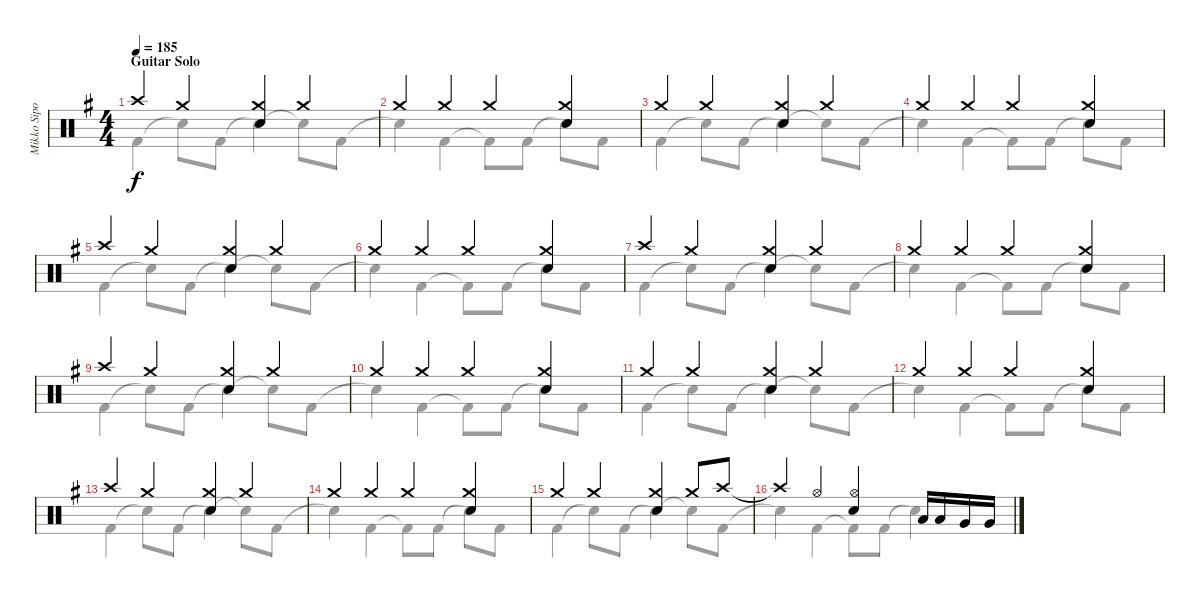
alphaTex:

\track ("Mikko Sipola (drums)" "Mikko Sipo") {instrument percussion}
\staff {score}
\articulation defaults
\voice
\ts (4 4)
\section ("" "Guitar Solo")
\tempo 185
\clef neutral
\ks eminor "Crash high (hit)".4{dy f} "Crash medium (hit)".4
("Crash medium (hit)" "Electric Snare (hit)").4 "Crash medium (hit)".4 |
"Crash medium (hit)".4 "Crash medium (hit)".4 "Crash medium (hit)".4 ("Crash medium (hit)" "Electric Snare (hit)").4 |
"Crash medium (hit)".4 "Crash medium (hit)".4 ("Crash medium (hit)" "Electric Snare (hit)").4 "Crash medium (hit)".4 |
"Crash medium (hit)".4 "Crash medium (hit)".4 "Crash medium (hit)".4 ("Crash medium (hit)" "Electric Snare (hit)").4 |
"Crash high (hit)".4 "Crash medium (hit)".4 ("Crash medium (hit)" "Electric Snare (hit)").4 "Crash medium (hit)".4 |
"Crash medium (hit)".4 "Crash medium (hit)".4 "Crash medium (hit)".4 ("Crash medium (hit)" "Electric Snare (hit)").4 |
"Crash high (hit)".4 "Crash medium (hit)".4 ("Crash medium (hit)" "Electric Snare (hit)").4 "Crash medium (hit)".4 |
"Crash medium (hit)".4 "Crash medium (hit)".4 "Crash medium (hit)".4 ("Crash medium (hit)" "Electric Snare (hit)").4 |
"Crash high (hit)".4 "Crash medium (hit)".4 ("Crash medium (hit)" "Electric Snare (hit)").4 "Crash medium (hit)".4 |
"Crash medium (hit)".4 "Crash medium (hit)".4 "Crash medium (hit)".4 ("Crash medium (hit)" "Electric Snare (hit)").4 |
"Crash medium (hit)".4 "Crash medium (hit)".4 ("Crash medium (hit)" "Electric Snare (hit)").4 "Crash medium (hit)".4 |
"Crash medium (hit)".4 "Crash medium (hit)".4 "Crash medium (hit)".4 ("Crash medium (hit)" "Electric Snare (hit)").4 |
"Crash high (hit)".4 "Crash medium (hit)".4 ("Crash medium (hit)" "Electric Snare (hit)").4 "Crash medium (hit)".4 |
"Crash medium (hit)".4 "Crash medium (hit)".4 "Crash medium (hit)".4 ("Crash medium (hit)" "Electric Snare (hit)").4 |
"Crash medium (hit)".4 "Crash medium (hit)".4 ("Crash medium (hit)" "Electric Snare (hit)").4 "Crash medium (hit)".8 "Crash high (hit)".8 |
"Crash high (hit)"{t}.4 "Hi-Hat (open)".4 ("Hi-Hat (open)" "Electric Snare (hit)").4 "Low Tom (hit)".16 "Low Tom (hit)".16 "Very Low Tom (hit)".16 "Very Low Tom (hit)".16
\voice
\clef neutral
\ottava regular
\simile none
\ks eminor "Kick (hit) 2".4{dy f} "Snare (hit)"{t}.8 "Kick (hit) 2".8 "Snare (hit)"{t}.4 "Snare (hit)"{t}.8 "Kick (hit) 2".8
|
"Snare (hit)"{t}.4 "Kick (hit) 2".4 "Kick (hit) 2"{t}.8 "Kick (hit) 2".8 "Snare (hit)"{t}.8 "Kick (hit) 2".8 |
"Kick (hit) 2".4 "Snare (hit)"{t}.8 "Kick (hit) 2".8 "Snare (hit)"{t}.4 "Snare (hit)"{t}.8 "Kick (hit) 2".8 |
"Snare (hit)"{t}.4 "Kick (hit) 2".4 "Kick (hit) 2"{t}.8 "Kick (hit) 2".8 "Snare (hit)"{t}.8 "Kick (hit) 2".8 |
"Kick (hit) 2".4 "Snare (hit)"{t}.8 "Kick (hit) 2".8 "Snare (hit)"{t}.4 "Snare (hit)"{t}.8 "Kick (hit) 2".8 |
"Snare (hit)"{t}.4 "Kick (hit) 2".4 "Kick (hit) 2"{t}.8 "Kick (hit) 2".8 "Snare (hit)"{t}.8 "Kick (hit) 2".8 |
"Kick (hit) 2".4 "Snare (hit)"{t}.8 "Kick (hit) 2".8 "Snare (hit)"{t}.4 "Snare (hit)"{t}.8 "Kick (hit) 2".8 |
"Snare (hit)"{t}.4 "Kick (hit) 2".4 "Kick (hit) 2"{t}.8 "Kick (hit) 2".8 "Snare (hit)"{t}.8 "Kick (hit) 2".8 |
"Kick (hit) 2".4 "Snare (hit)"{t}.8 "Kick (hit) 2".8 "Snare (hit)"{t}.4 "Snare (hit)"{t}.8 "Kick (hit) 2".8 |
"Snare (hit)"{t}.4 "Kick (hit) 2".4 "Kick (hit) 2"{t}.8 "Kick (hit) 2".8 "Snare (hit)"{t}.8 "Kick (hit) 2".8 |
"Kick (hit) 2".4 "Snare (hit)"{t}.8 "Kick (hit) 2".8 "Snare (hit)"{t}.4 "Snare (hit)"{t}.8 "Kick (hit) 2".8 |
"Snare (hit)"{t}.4 "Kick (hit) 2".4 "Kick (hit) 2"{t}.8 "Kick (hit) 2".8 "Snare (hit)"{t}.8 "Kick (hit) 2".8 |
"Kick (hit) 2".4 "Snare (hit)"{t}.8 "Kick (hit) 2".8 "Snare (hit)"{t}.4 "Snare (hit)"{t}.8 "Kick (hit) 2".8 |
"Snare (hit)"{t}.4 "Kick (hit) 2".4 "Kick (hit) 2"{t}.8 "Kick (hit) 2".8 "Snare (hit)"{t}.8 "Kick (hit) 2".8 |
"Kick (hit) 2".4 "Snare (hit)"{t}.8 "Kick (hit) 2".8 "Snare (hit)"{t}.4 "Snare (hit)"{t}.8 "Kick (hit) 2".8 |
"Snare (hit)"{t}.4 "Kick (hit) 2".4 "Kick (hit) 2"{t}.8 "Kick (hit) 2".8 "Snare (hit)"{t}.4
